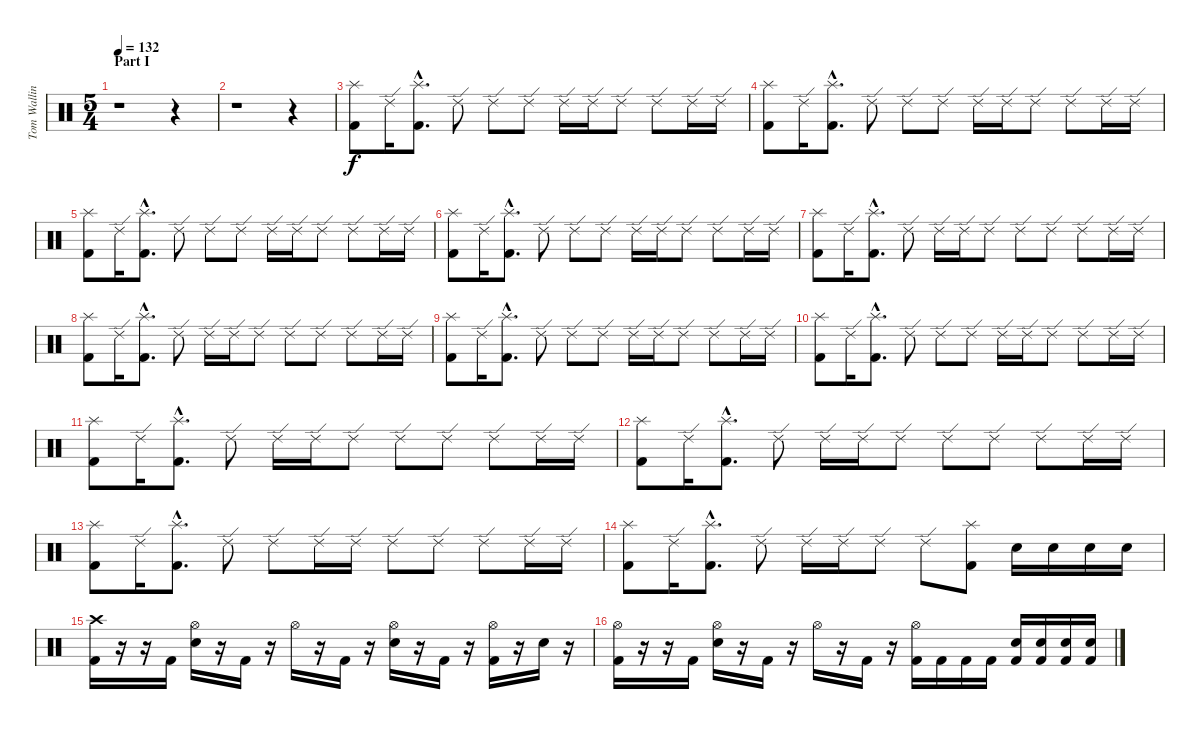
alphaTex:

\track ("Tom Walling [Drums]" "Tom Wallin") {instrument percussion}
\staff {score}
\articulation defaults
\ts (5 4)
\section ("" "Part I")
\tempo 132
\clef neutral
\ks c
r.1{dy f} r.4 |
r.1 r.4 |
("Splash (hit)" "Kick (hit) 2").8 "Ride (edge) 2".16 ("Splash (hit)"{hac} "Kick (hit) 2"{hac}).8{d} "Ride (edge) 2".8 "Ride (edge) 2".8 "Ride (edge) 2".8 "Ride (edge) 2".16 "Ride (edge) 2".16 "Ride (edge) 2".8 "Ride (edge) 2".8 "Ride (edge) 2".16 "Ride (edge) 2".16 |
("Splash (hit)" "Kick (hit) 2").8 "Ride (edge) 2".16 ("Splash (hit)"{hac} "Kick (hit) 2"{hac}).8{d} "Ride (edge) 2".8 "Ride (edge) 2".8 "Ride (edge) 2".8 "Ride (edge) 2".16 "Ride (edge) 2".16 "Ride (edge) 2".8 "Ride (edge) 2".8 "Ride (edge) 2".16 "Ride (edge) 2".16 |
("Splash (hit)" "Kick (hit) 2").8 "Ride (edge) 2".16 ("Splash (hit)"{hac} "Kick (hit) 2"{hac}).8{d} "Ride (edge) 2".8 "Ride (edge) 2".8 "Ride (edge) 2".8 "Ride (edge) 2".16 "Ride (edge) 2".16 "Ride (edge) 2".8 "Ride (edge) 2".8 "Ride (edge) 2".16 "Ride (edge) 2".16 |
("Splash (hit)" "Kick (hit) 2").8 "Ride (edge) 2".16 ("Splash (hit)"{hac} "Kick (hit) 2"{hac}).8{d} "Ride (edge) 2".8 "Ride (edge) 2".8 "Ride (edge) 2".8 "Ride (edge) 2".16 "Ride (edge) 2".16 "Ride (edge) 2".8 "Ride (edge) 2".8 "Ride (edge) 2".16 "Ride (edge) 2".16 |
("Splash (hit)" "Kick (hit) 2").8 "Ride (edge) 2".16 ("Splash (hit)"{hac} "Kick (hit) 2"{hac}).8{d} "Ride (edge) 2".8 "Ride (edge) 2".16 "Ride (edge) 2".16 "Ride (edge) 2".8 "Ride (edge) 2".8 "Ride (edge) 2".8 "Ride (edge) 2".8 "Ride (edge) 2".16 "Ride (edge) 2".16 |
("Splash (hit)" "Kick (hit) 2").8 "Ride (edge) 2".16 ("Splash (hit)"{hac} "Kick (hit) 2"{hac}).8{d} "Ride (edge) 2".8 "Ride (edge) 2".16 "Ride (edge) 2".16 "Ride (edge) 2".8 "Ride (edge) 2".8 "Ride (edge) 2".8 "Ride (edge) 2".8 "Ride (edge) 2".16 "Ride (edge) 2".16 |
("Splash (hit)" "Kick (hit) 2").8 "Ride (edge) 2".16 ("Splash (hit)"{hac} "Kick (hit) 2"{hac}).8{d} "Ride (edge) 2".8 "Ride (edge) 2".8 "Ride (edge) 2".8 "Ride (edge) 2".16 "Ride (edge) 2".16 "Ride (edge) 2".8 "Ride (edge) 2".8 "Ride (edge) 2".16 "Ride (edge) 2".16 |
("Splash (hit)" "Kick (hit) 2").8 "Ride (edge) 2".16 ("Splash (hit)"{hac} "Kick (hit) 2"{hac}).8{d} "Ride (edge) 2".8 "Ride (edge) 2".8 "Ride (edge) 2".8 "Ride (edge) 2".16 "Ride (edge) 2".16 "Ride (edge) 2".8 "Ride (edge) 2".8 "Ride (edge) 2".16 "Ride (edge) 2".16 |
("Splash (hit)" "Kick (hit) 2").8 "Ride (edge) 2".16 ("Splash (hit)"{hac} "Kick (hit) 2"{hac}).8{d} "Ride (edge) 2".8 "Ride (edge) 2".16 "Ride (edge) 2".16 "Ride (edge) 2".8 "Ride (edge) 2".8 "Ride (edge) 2".8 "Ride (edge) 2".8 "Ride (edge) 2".16 "Ride (edge) 2".16 |
("Splash (hit)" "Kick (hit) 2").8 "Ride (edge) 2".16 ("Splash (hit)"{hac} "Kick (hit) 2"{hac}).8{d} "Ride (edge) 2".8 "Ride (edge) 2".16 "Ride (edge) 2".16 "Ride (edge) 2".8 "Ride (edge) 2".8 "Ride (edge) 2".8 "Ride (edge) 2".8 "Ride (edge) 2".16 "Ride (edge) 2".16 |
("Splash (hit)" "Kick (hit) 2").8 "Ride (edge) 2".16 ("Splash (hit)"{hac} "Kick (hit) 2"{hac}).8{d} "Ride (edge) 2".8 "Ride (edge) 2".8 "Ride (edge) 2".16 "Ride (edge) 2".16 "Ride (edge) 2".8 "Ride (edge) 2".8 "Ride (edge) 2".8 "Ride (edge) 2".16 "Ride (edge) 2".16 |
("Splash (hit)" "Kick (hit) 2").8 "Ride (edge) 2".16 ("Splash (hit)"{hac} "Kick (hit) 2"{hac}).8{d} "Ride (edge) 2".8 "Ride (edge) 2".16 "Ride (edge) 2".16 "Ride (edge) 2".8 "Ride (edge) 2".8 ("Splash (hit)" "Kick (hit) 2").8 "Electric Snare (hit)".16 "Electric Snare (hit)".16 "Electric Snare (hit)".16 "Electric Snare (hit)".16 |
("Crash high (hit)" "Kick (hit) 2").16 r.16 r.16 "Kick (hit) 2".16 ("Hi-Hat (open)" "Electric Snare (hit)").16 r.16 "Kick (hit) 2".16 r.16 "Hi-Hat (open)".16 r.16 "Kick (hit) 2".16 r.16 ("Hi-Hat (open)" "Electric Snare (hit)").16 r.16 "Kick (hit) 2".16 r.16 ("Hi-Hat (open)" "Kick (hit) 2").16 r.16 "Electric Snare (hit)".16 r.16 |
("Hi-Hat (open)" "Kick (hit) 2").16 r.16 r.16 "Kick (hit) 2".16 ("Hi-Hat (open)" "Electric Snare (hit)").16 r.16 "Kick (hit) 2".16 r.16 "Hi-Hat (open)".16 r.16 "Kick (hit) 2".16 r.16 ("Hi-Hat (open)" "Kick (hit) 2").16 "Kick (hit) 2".16 "Kick (hit) 2".16 "Kick (hit) 2".16 ("Electric Snare (hit)" "Kick (hit) 2").16 ("Electric Snare (hit)" "Kick (hit) 2").16 ("Electric Snare (hit)" "Kick (hit) 2").16 ("Electric Snare (hit)" "Kick (hit) 2").16
